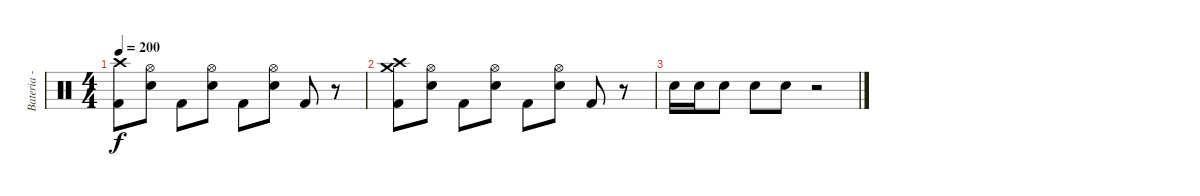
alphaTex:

\track ("Bateria - Larzon" "Bateria - ") {instrument percussion}
\staff {score}
\articulation defaults
\ts (4 4)
\tempo 200
\clef neutral
\ks c
("Kick (hit) 2" "Crash high (hit)").8{dy f} ("Hi-Hat (open)" "Electric Snare (hit)").8 "Kick (hit) 2".8 ("Hi-Hat (open)" "Electric Snare (hit)").8 "Kick (hit) 2".8 ("Hi-Hat (open)" "Electric Snare (hit)").8 "Kick (hit) 2".8 r.8 |
("Kick (hit) 2" "Crash high (hit)" "Crash medium (hit)").8 ("Hi-Hat (open)" "Electric Snare (hit)").8 "Kick (hit) 2".8 ("Hi-Hat (open)" "Electric Snare (hit)").8 "Kick (hit) 2".8 ("Hi-Hat (open)" "Electric Snare (hit)").8 "Kick (hit) 2".8 r.8 |
"Electric Snare (hit)".16 "Electric Snare (hit)".16 "Electric Snare (hit)".8 "Electric Snare (hit)".8 "Electric Snare (hit)".8 r.2
